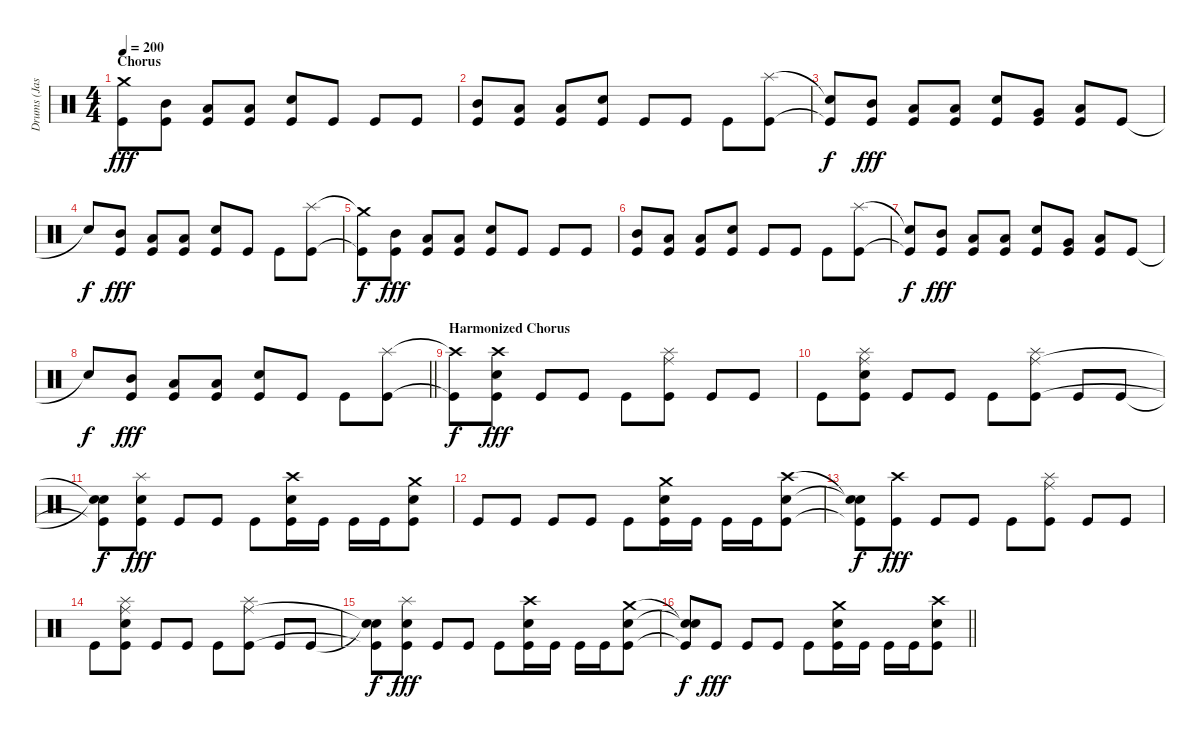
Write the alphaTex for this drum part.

\track ("Drums (Jason Costa)" "Drums (Jas") {instrument percussion}
\staff {score}
\articulation defaults
\ts (4 4)
\section ("" "Chorus")
\tempo 200
\clef neutral
\ks c
("Crash medium (hit)" "Kick (hit)").8{dy fff} ("Mid Tom (hit)" "Kick (hit)").8 ("Low Tom (hit)" "Kick (hit)").8 ("Low Floor Tom (hit)" "Kick (hit)").8 ("Electric Snare (hit)" "Kick (hit)").8 "Kick (hit)".8 "Kick (hit)".8 "Kick (hit)".8 |
("Mid Tom (hit)" "Kick (hit)").8 ("Low Tom (hit)" "Kick (hit)").8 ("Low Floor Tom (hit)" "Kick (hit)").8 ("Electric Snare (hit)" "Kick (hit)").8 "Kick (hit)".8 "Kick (hit)".8 "Kick (hit)".8 ("Splash (hit)" "Kick (hit)").8 |
("Snare (hit)"{t} "Kick (hit)"{t}).8{dy f} ("Mid Tom (hit)" "Kick (hit)").8{dy fff} ("Low Tom (hit)" "Kick (hit)").8 ("Low Floor Tom (hit)" "Kick (hit)").8 ("Electric Snare (hit)" "Kick (hit)").8 ("Very Low Tom (hit)" "Kick (hit)").8 ("Low Floor Tom (hit)" "Kick (hit)").8 "Kick (hit)".8 |
"Snare (hit)"{t}.8{dy f} ("Mid Tom (hit)" "Kick (hit)").8{dy fff} ("Low Tom (hit)" "Kick (hit)").8 ("Low Floor Tom (hit)" "Kick (hit)").8 ("Electric Snare (hit)" "Kick (hit)").8 "Kick (hit)".8 "Kick (hit)".8 ("Splash (hit)" "Kick (hit)").8 |
("Crash medium (hit)"{t} "Kick (hit)"{t}).8{dy f} ("Mid Tom (hit)" "Kick (hit)").8{dy fff} ("Low Tom (hit)" "Kick (hit)").8 ("Low Floor Tom (hit)" "Kick (hit)").8 ("Electric Snare (hit)" "Kick (hit)").8 "Kick (hit)".8 "Kick (hit)".8 "Kick (hit)".8 |
("Mid Tom (hit)" "Kick (hit)").8 ("Low Tom (hit)" "Kick (hit)").8 ("Low Floor Tom (hit)" "Kick (hit)").8 ("Electric Snare (hit)" "Kick (hit)").8 "Kick (hit)".8 "Kick (hit)".8 "Kick (hit)".8 ("Splash (hit)" "Kick (hit)").8 |
("Snare (hit)"{t} "Kick (hit)"{t}).8{dy f} ("Mid Tom (hit)" "Kick (hit)").8{dy fff} ("Low Tom (hit)" "Kick (hit)").8 ("Low Floor Tom (hit)" "Kick (hit)").8 ("Electric Snare (hit)" "Kick (hit)").8 ("Very Low Tom (hit)" "Kick (hit)").8 ("Low Floor Tom (hit)" "Kick (hit)").8 "Kick (hit)".8 |
\barLineRight lightlight "Snare (hit)"{t}.8{dy f}
("Mid Tom (hit)" "Kick (hit)").8{dy fff} ("Low Tom (hit)" "Kick (hit)").8 ("Low Floor Tom (hit)" "Kick (hit)").8 ("Electric Snare (hit)" "Kick (hit)").8 "Kick (hit)".8 "Kick (hit)".8 ("Splash (hit)" "Kick (hit)").8 |
\section ("" "Harmonized Chorus")
("Crash high (hit)"{t} "Kick (hit)"{t}).8{dy f} ("Crash high (hit)" "Electric Snare (hit)" "Kick (hit)").8{dy fff} "Kick (hit)".8 "Kick (hit)".8 "Kick (hit)".8 ("Splash (hit)" "Ride (middle)" "Kick (hit)").8 "Kick (hit)".8 "Kick (hit)".8 |
"Kick (hit)".8 ("Splash (hit)" "Ride (middle)" "Electric Snare (hit)" "Kick (hit)").8 "Kick (hit)".8 "Kick (hit)".8 "Kick (hit)".8 ("Splash (hit)" "Ride (middle)" "Kick (hit)").8 "Kick (hit)".8 "Kick (hit)".8 |
("Snare (hit)"{t} "Snare (hit)"{t} "Kick (hit)"{t}).8{dy f} ("Splash (hit)" "Electric Snare (hit)" "Kick (hit)").8{dy fff} "Kick (hit)".8 "Kick (hit)".8 "Kick (hit)".8 ("Crash high (hit)" "Electric Snare (hit)" "Kick (hit)").16 "Kick (hit)".16 "Kick (hit)".16 "Kick (hit)".16 ("Crash medium (hit)" "Electric Snare (hit)" "Kick (hit)").8 |
"Kick (hit)".8 "Kick (hit)".8 "Kick (hit)".8 "Kick (hit)".8 "Kick (hit)".8 ("Crash medium (hit)" "Electric Snare (hit)" "Kick (hit)").16 "Kick (hit)".16 "Kick (hit)".16 "Kick (hit)".16 ("Crash high (hit)" "Electric Snare (hit)" "Kick (hit)").8 |
("Snare (hit)"{t} "Snare (hit)"{t} "Kick (hit)"{t}).8{dy f} ("Crash high (hit)" "Kick (hit)").8{dy fff} "Kick (hit)".8 "Kick (hit)".8 "Kick (hit)".8 ("Splash (hit)" "Ride (middle)" "Kick (hit)").8 "Kick (hit)".8 "Kick (hit)".8 |
"Kick (hit)".8 ("Splash (hit)" "Ride (middle)" "Electric Snare (hit)" "Kick (hit)").8 "Kick (hit)".8 "Kick (hit)".8 "Kick (hit)".8 ("Splash (hit)" "Ride (middle)" "Kick (hit)").8 "Kick (hit)".8 "Kick (hit)".8 |
("Snare (hit)"{t} "Snare (hit)"{t} "Kick (hit)"{t}).8{dy f} ("Splash (hit)" "Electric Snare (hit)" "Kick (hit)").8{dy fff} "Kick (hit)".8 "Kick (hit)".8 "Kick (hit)".8 ("Crash high (hit)" "Electric Snare (hit)" "Kick (hit)").16 "Kick (hit)".16 "Kick (hit)".16 "Kick (hit)".16 ("Crash medium (hit)" "Electric Snare (hit)" "Kick (hit)").8 |
\barLineRight lightlight
("Snare (hit)"{t} "Snare (hit)"{t} "Kick (hit)"{t}).8{dy f} "Kick (hit)".8{dy fff} "Kick (hit)".8 "Kick (hit)".8 "Kick (hit)".8 ("Crash medium (hit)" "Electric Snare (hit)" "Kick (hit)").16 "Kick (hit)".16 "Kick (hit)".16 "Kick (hit)".16 ("Crash high (hit)" "Electric Snare (hit)" "Kick (hit)").8
